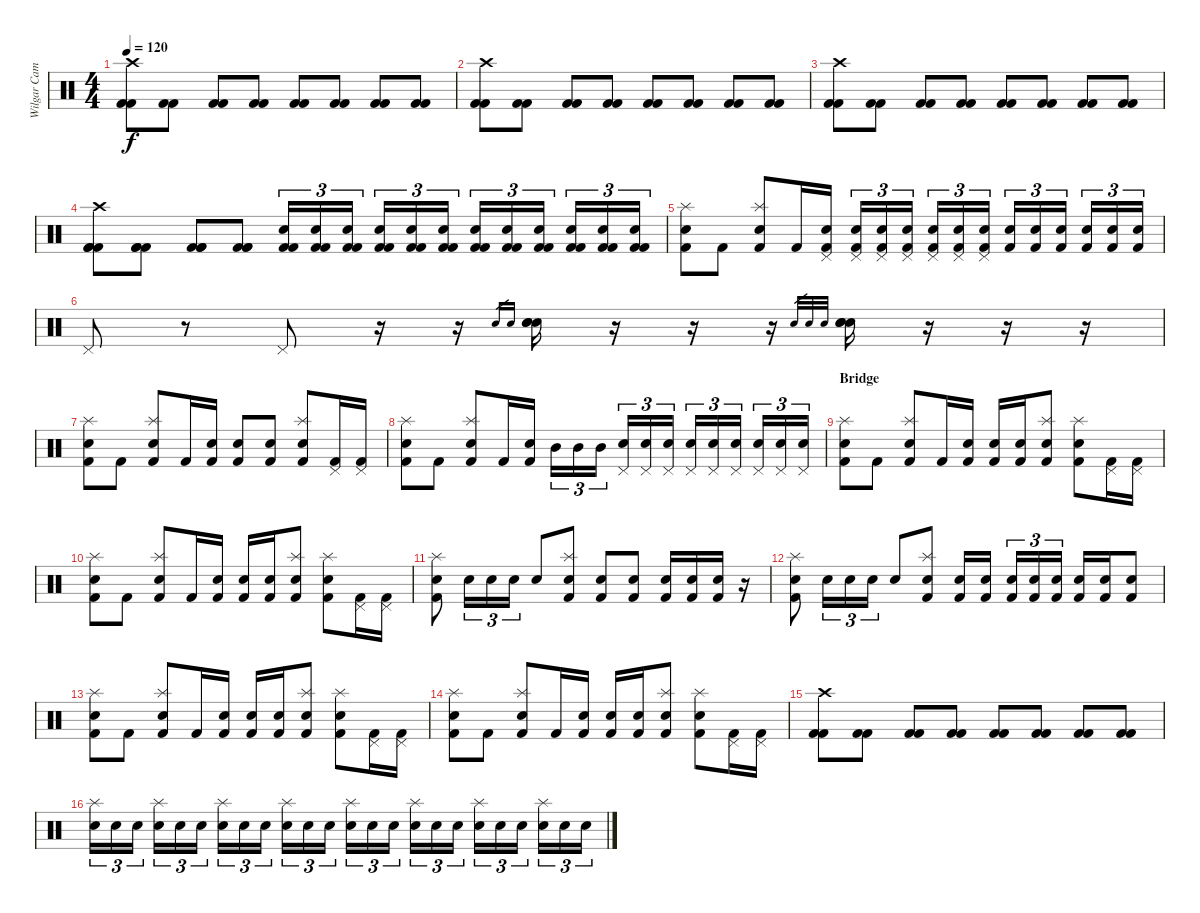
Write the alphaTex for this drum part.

\track ("Wilgar Campbell" "Wilgar Cam") {instrument percussion}
\staff {score}
\articulation defaults
\ts (4 4)
\tempo 120
\clef neutral
\ks c
("Crash high (hit)" "Kick (hit) 2" "Kick (hit) 2").8{dy f} ("Kick (hit) 2" "Kick (hit) 2").8 ("Kick (hit) 2" "Kick (hit) 2").8 ("Kick (hit) 2" "Kick (hit) 2").8 ("Kick (hit) 2" "Kick (hit) 2").8 ("Kick (hit) 2" "Kick (hit) 2").8 ("Kick (hit) 2" "Kick (hit) 2").8 ("Kick (hit) 2" "Kick (hit) 2").8 |
("Crash high (hit)" "Kick (hit) 2" "Kick (hit) 2").8 ("Kick (hit) 2" "Kick (hit) 2").8 ("Kick (hit) 2" "Kick (hit) 2").8 ("Kick (hit) 2" "Kick (hit) 2").8 ("Kick (hit) 2" "Kick (hit) 2").8 ("Kick (hit) 2" "Kick (hit) 2").8 ("Kick (hit) 2" "Kick (hit) 2").8 ("Kick (hit) 2" "Kick (hit) 2").8 |
("Crash high (hit)" "Kick (hit) 2" "Kick (hit) 2").8 ("Kick (hit) 2" "Kick (hit) 2").8 ("Kick (hit) 2" "Kick (hit) 2").8 ("Kick (hit) 2" "Kick (hit) 2").8 ("Kick (hit) 2" "Kick (hit) 2").8 ("Kick (hit) 2" "Kick (hit) 2").8 ("Kick (hit) 2" "Kick (hit) 2").8 ("Kick (hit) 2" "Kick (hit) 2").8 |
("Crash high (hit)" "Kick (hit) 2" "Kick (hit) 2" "Kick (hit) 2").8 ("Kick (hit) 2" "Kick (hit) 2" "Kick (hit) 2").8 ("Kick (hit) 2" "Kick (hit) 2" "Kick (hit) 2").8 ("Kick (hit) 2" "Kick (hit) 2" "Kick (hit) 2").8 ("Snare (hit) 2" "Kick (hit) 2" "Kick (hit) 2").16{tu (3 2)} ("Snare (hit) 2" "Kick (hit) 2" "Kick (hit) 2").16{tu (3 2)} ("Snare (hit) 2" "Kick (hit) 2" "Kick (hit) 2").16{tu (3 2)} ("Snare (hit) 2" "Kick (hit) 2" "Kick (hit) 2").16{tu (3 2)} ("Snare (hit) 2" "Kick (hit) 2" "Kick (hit) 2").16{tu (3 2)} ("Snare (hit) 2" "Kick (hit) 2" "Kick (hit) 2").16{tu (3 2)} ("Snare (hit) 2" "Kick (hit) 2" "Kick (hit) 2").16{tu (3 2)} ("Snare (hit) 2" "Kick (hit) 2" "Kick (hit) 2").16{tu (3 2)} ("Snare (hit) 2" "Kick (hit) 2" "Kick (hit) 2").16{tu (3 2)} ("Snare (hit) 2" "Kick (hit) 2" "Kick (hit) 2").16{tu (3 2)} ("Snare (hit) 2" "Kick (hit) 2" "Kick (hit) 2").16{tu (3 2)} ("Snare (hit) 2" "Kick (hit) 2" "Kick (hit) 2").16{tu (3 2)} |
("Splash (hit)" "Snare (hit) 2" "Kick (hit) 2").8 "Kick (hit) 2".8 ("Splash (hit)" "Electric Snare (hit)" "Kick (hit) 2").8 "Kick (hit) 2".16 ("Pedal Hi-Hat (hit)" "Snare (hit) 2" "Kick (hit) 2").16 ("Pedal Hi-Hat (hit)" "Snare (hit) 2" "Kick (hit) 2").16{tu (3 2)} ("Pedal Hi-Hat (hit)" "Snare (hit) 2" "Kick (hit) 2").16{tu (3 2)} ("Pedal Hi-Hat (hit)" "Snare (hit) 2" "Kick (hit) 2").16{tu (3 2)} ("Pedal Hi-Hat (hit)" "Snare (hit) 2" "Kick (hit) 2").16{tu (3 2)} ("Pedal Hi-Hat (hit)" "Snare (hit) 2" "Kick (hit) 2").16{tu (3 2)} ("Pedal Hi-Hat (hit)" "Snare (hit) 2" "Kick (hit) 2").16{tu (3 2)} ("Electric Snare (hit)" "Kick (hit) 2").16{tu (3 2)} ("Electric Snare (hit)" "Kick (hit) 2").16{tu (3 2)} ("Electric Snare (hit)" "Kick (hit) 2").16{tu (3 2)} ("Electric Snare (hit)" "Kick (hit) 2").16{tu (3 2)} ("Electric Snare (hit)" "Kick (hit) 2").16{tu (3 2)} ("Electric Snare (hit)" "Kick (hit) 2").16{tu (3 2)} |
"Pedal Hi-Hat (hit)".8 r.8 "Pedal Hi-Hat (hit)".8 r.16 r.16 "Snare (hit) 2".16{gr} "Snare (hit) 2".16{gr} ("Electric Snare (hit)" "Electric Snare (hit)" "Electric Snare (hit)").16 r.16 r.16 r.16 "Snare (hit) 2".32{gr} "Snare (hit) 2".32{gr} "Snare (hit) 2".32{gr} ("Electric Snare (hit)" "Electric Snare (hit)" "Electric Snare (hit)").16 r.16 r.16 r.16 |
("Splash (hit)" "Snare (hit) 2" "Kick (hit) 2").8 "Kick (hit) 2".8 ("Splash (hit)" "Electric Snare (hit)" "Kick (hit) 2").8 "Kick (hit) 2".16 ("Snare (hit) 2" "Kick (hit) 2").16 ("Snare (hit) 2" "Kick (hit) 2").8 ("Electric Snare (hit)" "Kick (hit) 2").8 ("Splash (hit)" "Electric Snare (hit)" "Kick (hit) 2").8 ("Pedal Hi-Hat (hit)" "Kick (hit) 2").16 ("Pedal Hi-Hat (hit)" "Kick (hit) 2").16 |
("Splash (hit)" "Snare (hit) 2" "Kick (hit) 2").8 "Kick (hit) 2".8 ("Splash (hit)" "Electric Snare (hit)" "Kick (hit) 2").8 "Kick (hit) 2".16 ("Snare (hit) 2" "Kick (hit) 2").16 "Mid Tom (hit)".16{tu (3 2)} "Mid Tom (hit)".16{tu (3 2)} "Mid Tom (hit)".16{tu (3 2)} ("Pedal Hi-Hat (hit)" "Snare (hit) 2").16{tu (3 2)} ("Pedal Hi-Hat (hit)" "Snare (hit) 2").16{tu (3 2)} ("Pedal Hi-Hat (hit)" "Snare (hit) 2").16{tu (3 2)} ("Pedal Hi-Hat (hit)" "Snare (hit) 2").16{tu (3 2)} ("Pedal Hi-Hat (hit)" "Snare (hit) 2").16{tu (3 2)} ("Pedal Hi-Hat (hit)" "Snare (hit) 2").16{tu (3 2)} ("Pedal Hi-Hat (hit)" "Snare (hit) 2").16{tu (3 2)} ("Pedal Hi-Hat (hit)" "Snare (hit) 2").16{tu (3 2)} ("Pedal Hi-Hat (hit)" "Snare (hit) 2").16{tu (3 2)} |
\section ("" "Bridge")
("Splash (hit)" "Snare (hit) 2" "Kick (hit) 2").8 "Kick (hit) 2".8 ("Splash (hit)" "Electric Snare (hit)" "Kick (hit) 2").8 "Kick (hit) 2".16 ("Snare (hit) 2" "Kick (hit) 2").16 ("Snare (hit) 2" "Kick (hit) 2").16 ("Electric Snare (hit)" "Kick (hit) 2").16 ("Splash (hit)" "Electric Snare (hit)" "Kick (hit) 2").8 ("Splash (hit)" "Snare (hit) 2" "Kick (hit) 2").8 ("Pedal Hi-Hat (hit)" "Kick (hit) 2").16 ("Pedal Hi-Hat (hit)" "Kick (hit) 2").16 |
("Splash (hit)" "Snare (hit) 2" "Kick (hit) 2").8 "Kick (hit) 2".8 ("Splash (hit)" "Electric Snare (hit)" "Kick (hit) 2").8 "Kick (hit) 2".16 ("Snare (hit) 2" "Kick (hit) 2").16 ("Snare (hit) 2" "Kick (hit) 2").16 ("Electric Snare (hit)" "Kick (hit) 2").16 ("Splash (hit)" "Electric Snare (hit)" "Kick (hit) 2").8 ("Splash (hit)" "Snare (hit) 2" "Kick (hit) 2").8 ("Pedal Hi-Hat (hit)" "Kick (hit) 2").16 ("Pedal Hi-Hat (hit)" "Kick (hit) 2").16 |
("Splash (hit)" "Kick (hit) 2" "Snare (hit) 2").8 "Electric Snare (hit)".16{tu (3 2)} "Electric Snare (hit)".16{tu (3 2)} "Electric Snare (hit)".16{tu (3 2)} "Electric Snare (hit)".8 ("Splash (hit)" "Electric Snare (hit)" "Kick (hit) 2").8 ("Snare (hit) 2" "Kick (hit) 2").8 ("Electric Snare (hit)" "Kick (hit) 2").8 ("Electric Snare (hit)" "Kick (hit) 2").16 ("Electric Snare (hit)" "Kick (hit) 2").16 ("Electric Snare (hit)" "Kick (hit) 2").16 r.16 |
("Splash (hit)" "Kick (hit) 2" "Snare (hit) 2").8 "Electric Snare (hit)".16{tu (3 2)} "Electric Snare (hit)".16{tu (3 2)} "Electric Snare (hit)".16{tu (3 2)} "Electric Snare (hit)".8 ("Splash (hit)" "Electric Snare (hit)" "Kick (hit) 2").8 ("Snare (hit) 2" "Kick (hit) 2").16 ("Electric Snare (hit)" "Kick (hit) 2").16 ("Electric Snare (hit)" "Kick (hit) 2").16{tu (3 2)} ("Electric Snare (hit)" "Kick (hit) 2").16{tu (3 2)} ("Electric Snare (hit)" "Kick (hit) 2").16{tu (3 2)} ("Electric Snare (hit)" "Kick (hit) 2").16 ("Electric Snare (hit)" "Kick (hit) 2").16 ("Electric Snare (hit)" "Kick (hit) 2").8 |
("Splash (hit)" "Snare (hit) 2" "Kick (hit) 2").8 "Kick (hit) 2".8 ("Splash (hit)" "Electric Snare (hit)" "Kick (hit) 2").8 "Kick (hit) 2".16 ("Snare (hit) 2" "Kick (hit) 2").16 ("Snare (hit) 2" "Kick (hit) 2").16 ("Electric Snare (hit)" "Kick (hit) 2").16 ("Splash (hit)" "Electric Snare (hit)" "Kick (hit) 2").8 ("Splash (hit)" "Snare (hit) 2" "Kick (hit) 2").8 ("Pedal Hi-Hat (hit)" "Kick (hit) 2").16 ("Pedal Hi-Hat (hit)" "Kick (hit) 2").16 |
("Splash (hit)" "Snare (hit) 2" "Kick (hit) 2").8 "Kick (hit) 2".8 ("Splash (hit)" "Electric Snare (hit)" "Kick (hit) 2").8 "Kick (hit) 2".16 ("Snare (hit) 2" "Kick (hit) 2").16 ("Snare (hit) 2" "Kick (hit) 2").16 ("Electric Snare (hit)" "Kick (hit) 2").16 ("Splash (hit)" "Electric Snare (hit)" "Kick (hit) 2").8 ("Splash (hit)" "Snare (hit) 2" "Kick (hit) 2").8 ("Pedal Hi-Hat (hit)" "Kick (hit) 2").16 ("Pedal Hi-Hat (hit)" "Kick (hit) 2").16 |
("Crash high (hit)" "Kick (hit) 2" "Kick (hit) 2").8 ("Kick (hit) 2" "Kick (hit) 2").8 ("Kick (hit) 2" "Kick (hit) 2").8 ("Kick (hit) 2" "Kick (hit) 2").8 ("Kick (hit) 2" "Kick (hit) 2").8 ("Kick (hit) 2" "Kick (hit) 2").8 ("Kick (hit) 2" "Kick (hit) 2").8 ("Kick (hit) 2" "Kick (hit) 2").8 |
("Splash (hit)" "Electric Snare (hit)").16{tu (3 2)} "Electric Snare (hit)".16{tu (3 2)} "Electric Snare (hit)".16{tu (3 2)} ("Splash (hit)" "Electric Snare (hit)").16{tu (3 2)} "Electric Snare (hit)".16{tu (3 2)} "Electric Snare (hit)".16{tu (3 2)} ("Splash (hit)" "Electric Snare (hit)").16{tu (3 2)} "Electric Snare (hit)".16{tu (3 2)} "Electric Snare (hit)".16{tu (3 2)} ("Splash (hit)" "Snare (hit) 2").16{tu (3 2)} "Snare (hit) 2".16{tu (3 2)} "Snare (hit) 2".16{tu (3 2)} ("Splash (hit)" "Snare (hit) 2").16{tu (3 2)} "Snare (hit) 2".16{tu (3 2)} "Snare (hit) 2".16{tu (3 2)} ("Splash (hit)" "Snare (hit) 2").16{tu (3 2)} "Snare (hit) 2".16{tu (3 2)} "Snare (hit) 2".16{tu (3 2)} ("Splash (hit)" "Electric Snare (hit)").16{tu (3 2)} "Electric Snare (hit)".16{tu (3 2)} "Electric Snare (hit)".16{tu (3 2)} ("Splash (hit)" "Snare (hit) 2").16{tu (3 2)} "Snare (hit) 2".16{tu (3 2)} "Snare (hit) 2".16{tu (3 2)}
